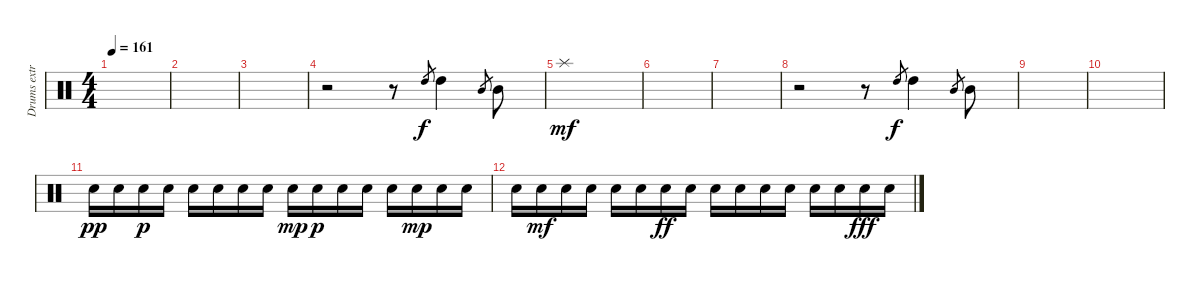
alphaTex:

\track ("Drums extra" "Drums extr") {instrument percussion}
\staff {score}
\articulation defaults
\ts (4 4)
\tempo 161
\clef neutral
\ks c
|
|
|
r.2 r.8 "High Tom (hit)".8{gr} "High Tom (hit)".4 "Mid Tom (hit)".8{gr} "Mid Tom (hit)".8 |
"Splash (hit)".1{dy mf} |
|
|
r.2 r.8 "High Tom (hit)".8{gr dy f} "High Tom (hit)".4 "Mid Tom (hit)".8{gr} "Mid Tom (hit)".8 |
|
|
"Electric Snare (hit)".16{dy pp} "Electric Snare (hit)".16 "Electric Snare (hit)".16{dy p} "Electric Snare (hit)".16 "Electric Snare (hit)".16 "Electric Snare (hit)".16 "Electric Snare (hit)".16 "Electric Snare (hit)".16 "Electric Snare (hit)".16{dy mp} "Electric Snare (hit)".16{dy p} "Electric Snare (hit)".16 "Electric Snare (hit)".16 "Electric Snare (hit)".16 "Electric Snare (hit)".16{dy mp} "Electric Snare (hit)".16 "Electric Snare (hit)".16 |
"Electric Snare (hit)".16 "Electric Snare (hit)".16{dy mf} "Electric Snare (hit)".16 "Electric Snare (hit)".16 "Electric Snare (hit)".16 "Electric Snare (hit)".16 "Electric Snare (hit)".16{dy ff} "Electric Snare (hit)".16 "Electric Snare (hit)".16 "Electric Snare (hit)".16 "Electric Snare (hit)".16 "Electric Snare (hit)".16 "Electric Snare (hit)".16 "Electric Snare (hit)".16 "Electric Snare (hit)".16{dy fff} "Electric Snare (hit)".16
